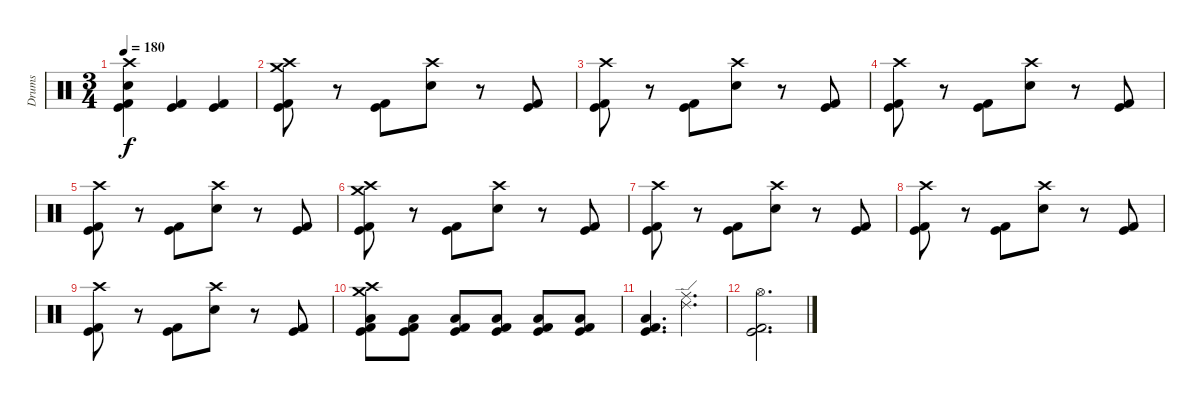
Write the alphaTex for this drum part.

\track ("Drums" "Drums") {instrument percussion}
\staff {score}
\articulation defaults
\ts (3 4)
\tempo 180
\clef neutral
\ks c
("Crash high (hit)" "Snare (hit) 2" "Kick (hit)" "Kick (hit) 2").4{dy f} ("Kick (hit)" "Kick (hit) 2").4 ("Kick (hit)" "Kick (hit) 2").4 |
("Crash medium (hit)" "Crash high (hit)" "Kick (hit)" "Kick (hit) 2").8 r.8 ("Kick (hit)" "Kick (hit) 2").8 ("Crash high (hit)" "Snare (hit) 2").8 r.8 ("Kick (hit)" "Kick (hit) 2").8 |
("Crash high (hit)" "Kick (hit)" "Kick (hit) 2").8 r.8 ("Kick (hit)" "Kick (hit) 2").8 ("Crash high (hit)" "Snare (hit) 2").8 r.8 ("Kick (hit)" "Kick (hit) 2").8 |
("Crash high (hit)" "Kick (hit)" "Kick (hit) 2").8 r.8 ("Kick (hit)" "Kick (hit) 2").8 ("Crash high (hit)" "Snare (hit) 2").8 r.8 ("Kick (hit)" "Kick (hit) 2").8 |
("Crash high (hit)" "Kick (hit)" "Kick (hit) 2").8 r.8 ("Kick (hit)" "Kick (hit) 2").8 ("Crash high (hit)" "Snare (hit) 2").8 r.8 ("Kick (hit)" "Kick (hit) 2").8 |
("Crash medium (hit)" "Crash high (hit)" "Kick (hit)" "Kick (hit) 2").8 r.8 ("Kick (hit)" "Kick (hit) 2").8 ("Crash high (hit)" "Snare (hit) 2").8 r.8 ("Kick (hit)" "Kick (hit) 2").8 |
("Crash high (hit)" "Kick (hit)" "Kick (hit) 2").8 r.8 ("Kick (hit)" "Kick (hit) 2").8 ("Crash high (hit)" "Snare (hit) 2").8 r.8 ("Kick (hit)" "Kick (hit) 2").8 |
("Crash high (hit)" "Kick (hit)" "Kick (hit) 2").8 r.8 ("Kick (hit)" "Kick (hit) 2").8 ("Crash high (hit)" "Snare (hit) 2").8 r.8 ("Kick (hit)" "Kick (hit) 2").8 |
("Crash high (hit)" "Kick (hit)" "Kick (hit) 2").8 r.8 ("Kick (hit)" "Kick (hit) 2").8 ("Crash high (hit)" "Snare (hit) 2").8 r.8 ("Kick (hit)" "Kick (hit) 2").8 |
("Crash medium (hit)" "Crash high (hit)" "Low Tom (hit)" "Kick (hit)" "Kick (hit) 2").8 ("Low Tom (hit)" "Kick (hit)" "Kick (hit) 2").8 ("Low Tom (hit)" "Kick (hit)" "Kick (hit) 2").8 ("Low Tom (hit)" "Kick (hit)" "Kick (hit) 2").8 ("Low Tom (hit)" "Kick (hit)" "Kick (hit) 2").8 ("Low Tom (hit)" "Kick (hit)" "Kick (hit) 2").8 |
("Low Tom (hit)" "Kick (hit)" "Kick (hit) 2").4{d} ("Ride (middle)" "Ride (edge) 2").4{d} |
("Hi-Hat (open)" "Kick (hit)" "Kick (hit) 2").2{d}
